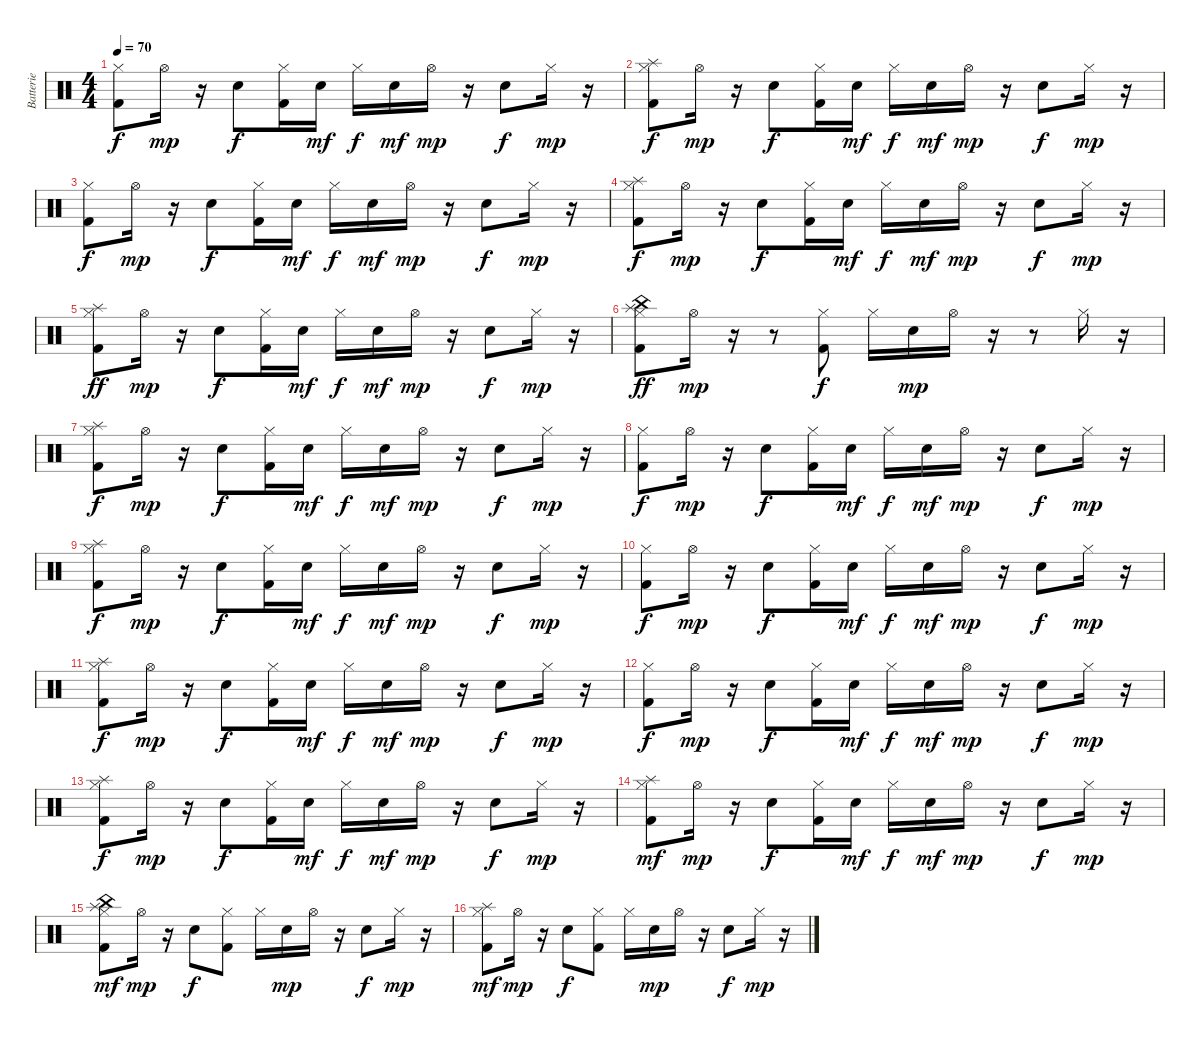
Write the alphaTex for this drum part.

\track ("Batterie" "Batterie") {instrument percussion}
\staff {score}
\articulation defaults
\ts (4 4)
\tempo 70
\clef neutral
\ks c
("Kick (hit) 2" "Hi-Hat (closed)").8{dy f} "Hi-Hat (open)".16{dy mp} r.16 "Electric Snare (hit)".8{dy f} ("Kick (hit) 2" "Hi-Hat (closed)").16 "Electric Snare (hit)".16{dy mf} "Hi-Hat (closed)".16{dy f} "Electric Snare (hit)".16{dy mf} "Hi-Hat (open)".16{dy mp} r.16 "Electric Snare (hit)".8{dy f} "Hi-Hat (closed)".16{dy mp} r.16 |
("Kick (hit) 2" "Hi-Hat (closed)" "Splash (hit)").8{dy f} "Hi-Hat (open)".16{dy mp} r.16 "Electric Snare (hit)".8{dy f} ("Kick (hit) 2" "Hi-Hat (closed)").16 "Electric Snare (hit)".16{dy mf} "Hi-Hat (closed)".16{dy f} "Electric Snare (hit)".16{dy mf} "Hi-Hat (open)".16{dy mp} r.16 "Electric Snare (hit)".8{dy f} "Hi-Hat (closed)".16{dy mp} r.16 |
("Kick (hit) 2" "Hi-Hat (closed)").8{dy f} "Hi-Hat (open)".16{dy mp} r.16 "Electric Snare (hit)".8{dy f} ("Kick (hit) 2" "Hi-Hat (closed)").16 "Electric Snare (hit)".16{dy mf} "Hi-Hat (closed)".16{dy f} "Electric Snare (hit)".16{dy mf} "Hi-Hat (open)".16{dy mp} r.16 "Electric Snare (hit)".8{dy f} "Hi-Hat (closed)".16{dy mp} r.16 |
("Kick (hit) 2" "Hi-Hat (closed)" "Splash (hit)").8{dy f} "Hi-Hat (open)".16{dy mp} r.16 "Electric Snare (hit)".8{dy f} ("Kick (hit) 2" "Hi-Hat (closed)").16 "Electric Snare (hit)".16{dy mf} "Hi-Hat (closed)".16{dy f} "Electric Snare (hit)".16{dy mf} "Hi-Hat (open)".16{dy mp} r.16 "Electric Snare (hit)".8{dy f} "Hi-Hat (closed)".16{dy mp} r.16 |
("Kick (hit) 2" "Hi-Hat (closed)" "Splash (hit)").8{dy ff} "Hi-Hat (open)".16{dy mp} r.16 "Electric Snare (hit)".8{dy f} ("Kick (hit) 2" "Hi-Hat (closed)").16 "Electric Snare (hit)".16{dy mf} "Hi-Hat (closed)".16{dy f} "Electric Snare (hit)".16{dy mf} "Hi-Hat (open)".16{dy mp} r.16 "Electric Snare (hit)".8{dy f} "Hi-Hat (closed)".16{dy mp} r.16 |
("Kick (hit) 2" "Hi-Hat (closed)" "Splash (hit)" "China (hit)").8{dy ff} "Hi-Hat (open)".16{dy mp} r.16 r.8 ("Kick (hit) 2" "Hi-Hat (closed)").8{dy f} "Hi-Hat (closed)".16 "Electric Snare (hit)".16{dy mp} "Hi-Hat (open)".16 r.16 r.8 "Hi-Hat (closed)".16 r.16 |
("Kick (hit) 2" "Hi-Hat (closed)" "Splash (hit)").8{dy f} "Hi-Hat (open)".16{dy mp} r.16 "Electric Snare (hit)".8{dy f} ("Kick (hit) 2" "Hi-Hat (closed)").16 "Electric Snare (hit)".16{dy mf} "Hi-Hat (closed)".16{dy f} "Electric Snare (hit)".16{dy mf} "Hi-Hat (open)".16{dy mp} r.16 "Electric Snare (hit)".8{dy f} "Hi-Hat (closed)".16{dy mp} r.16 |
("Kick (hit) 2" "Hi-Hat (closed)").8{dy f} "Hi-Hat (open)".16{dy mp} r.16 "Electric Snare (hit)".8{dy f} ("Kick (hit) 2" "Hi-Hat (closed)").16 "Electric Snare (hit)".16{dy mf} "Hi-Hat (closed)".16{dy f} "Electric Snare (hit)".16{dy mf} "Hi-Hat (open)".16{dy mp} r.16 "Electric Snare (hit)".8{dy f} "Hi-Hat (closed)".16{dy mp} r.16 |
("Kick (hit) 2" "Hi-Hat (closed)" "Splash (hit)").8{dy f} "Hi-Hat (open)".16{dy mp} r.16 "Electric Snare (hit)".8{dy f} ("Kick (hit) 2" "Hi-Hat (closed)").16 "Electric Snare (hit)".16{dy mf} "Hi-Hat (closed)".16{dy f} "Electric Snare (hit)".16{dy mf} "Hi-Hat (open)".16{dy mp} r.16 "Electric Snare (hit)".8{dy f} "Hi-Hat (closed)".16{dy mp} r.16 |
("Kick (hit) 2" "Hi-Hat (closed)").8{dy f} "Hi-Hat (open)".16{dy mp} r.16 "Electric Snare (hit)".8{dy f} ("Kick (hit) 2" "Hi-Hat (closed)").16 "Electric Snare (hit)".16{dy mf} "Hi-Hat (closed)".16{dy f} "Electric Snare (hit)".16{dy mf} "Hi-Hat (open)".16{dy mp} r.16 "Electric Snare (hit)".8{dy f} "Hi-Hat (closed)".16{dy mp} r.16 |
("Kick (hit) 2" "Hi-Hat (closed)" "Splash (hit)").8{dy f} "Hi-Hat (open)".16{dy mp} r.16 "Electric Snare (hit)".8{dy f} ("Kick (hit) 2" "Hi-Hat (closed)").16 "Electric Snare (hit)".16{dy mf} "Hi-Hat (closed)".16{dy f} "Electric Snare (hit)".16{dy mf} "Hi-Hat (open)".16{dy mp} r.16 "Electric Snare (hit)".8{dy f} "Hi-Hat (closed)".16{dy mp} r.16 |
("Kick (hit) 2" "Hi-Hat (closed)").8{dy f} "Hi-Hat (open)".16{dy mp} r.16 "Electric Snare (hit)".8{dy f} ("Kick (hit) 2" "Hi-Hat (closed)").16 "Electric Snare (hit)".16{dy mf} "Hi-Hat (closed)".16{dy f} "Electric Snare (hit)".16{dy mf} "Hi-Hat (open)".16{dy mp} r.16 "Electric Snare (hit)".8{dy f} "Hi-Hat (closed)".16{dy mp} r.16 |
("Kick (hit) 2" "Hi-Hat (closed)" "Splash (hit)").8{dy f} "Hi-Hat (open)".16{dy mp} r.16 "Electric Snare (hit)".8{dy f} ("Kick (hit) 2" "Hi-Hat (closed)").16 "Electric Snare (hit)".16{dy mf} "Hi-Hat (closed)".16{dy f} "Electric Snare (hit)".16{dy mf} "Hi-Hat (open)".16{dy mp} r.16 "Electric Snare (hit)".8{dy f} "Hi-Hat (closed)".16{dy mp} r.16 |
("Kick (hit) 2" "Hi-Hat (closed)" "Splash (hit)").8{dy mf} "Hi-Hat (open)".16{dy mp} r.16 "Electric Snare (hit)".8{dy f} ("Kick (hit) 2" "Hi-Hat (closed)").16 "Electric Snare (hit)".16{dy mf} "Hi-Hat (closed)".16{dy f} "Electric Snare (hit)".16{dy mf} "Hi-Hat (open)".16{dy mp} r.16 "Electric Snare (hit)".8{dy f} "Hi-Hat (closed)".16{dy mp} r.16 |
("Kick (hit) 2" "Hi-Hat (closed)" "Splash (hit)" "China (hit)").8{dy mf} "Hi-Hat (open)".16{dy mp} r.16 "Electric Snare (hit)".8{dy f} ("Kick (hit) 2" "Hi-Hat (closed)").8 "Hi-Hat (closed)".16 "Electric Snare (hit)".16{dy mp} "Hi-Hat (open)".16 r.16 "Electric Snare (hit)".8{dy f} "Hi-Hat (closed)".16{dy mp} r.16 |
("Kick (hit) 2" "Hi-Hat (closed)" "Splash (hit)").8{dy mf} "Hi-Hat (open)".16{dy mp} r.16 "Electric Snare (hit)".8{dy f} ("Kick (hit) 2" "Hi-Hat (closed)").8 "Hi-Hat (closed)".16 "Electric Snare (hit)".16{dy mp} "Hi-Hat (open)".16 r.16 "Electric Snare (hit)".8{dy f} "Hi-Hat (closed)".16{dy mp} r.16
